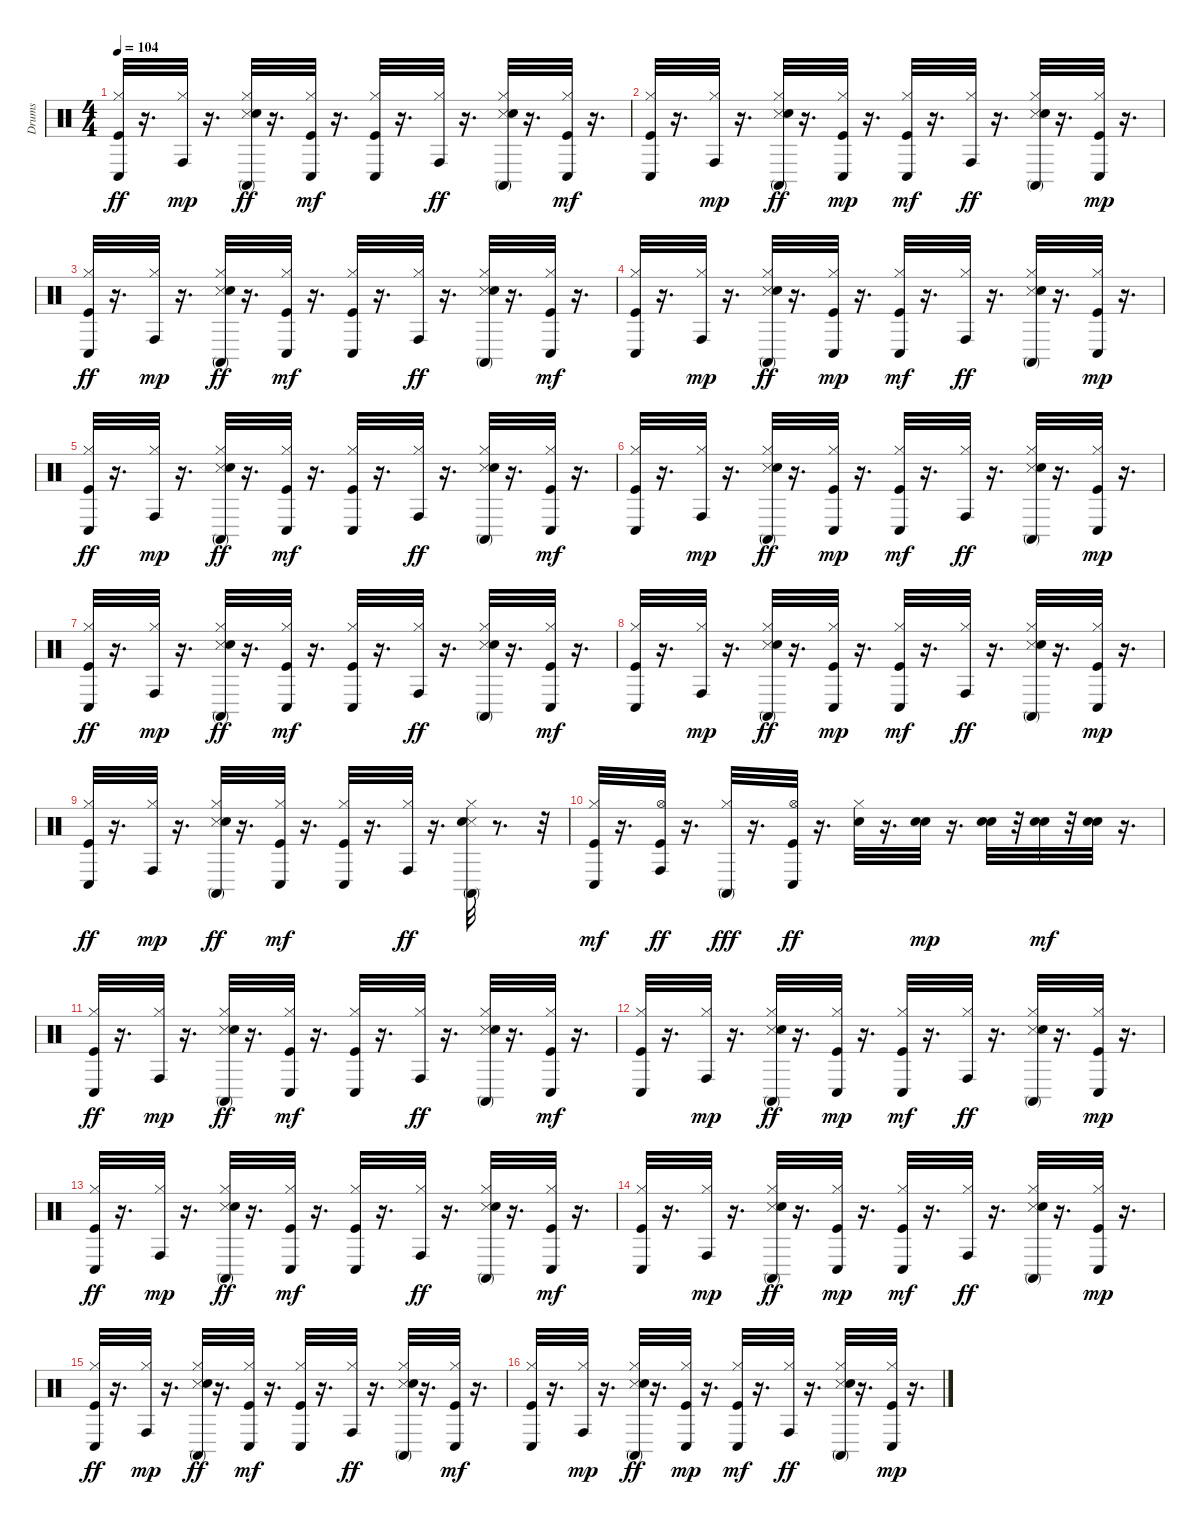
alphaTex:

\track ("Drums" "Drums") {instrument percussion}
\staff {score}
\articulation defaults
\ts (4 4)
\tempo 104
\clef neutral
\ks c
("Kick (hit)" "Hi-Hat (closed)" "Conga low (hit)").32{dy ff} r.16{d} ("Hi-Hat (closed)" "Conga high (hit)").32{dy mp} r.16{d} ("Snare (side stick) 3" "Hi-Hat (closed)" "Conga high (mute)" "Snare (hit) 2").32{dy ff} r.16{d} ("Kick (hit)" "Hi-Hat (closed)" "Conga low (hit)").32{dy mf} r.16{d} ("Kick (hit)" "Hi-Hat (closed)" "Conga low (hit)").32 r.16{d} ("Hi-Hat (closed)" "Conga high (hit)").32{dy ff} r.16{d} ("Snare (side stick) 3" "Hi-Hat (closed)" "Conga high (mute)" "Snare (hit) 2").32 r.16{d} ("Kick (hit)" "Hi-Hat (closed)" "Conga low (hit)").32{dy mf} r.16{d} |
("Kick (hit)" "Hi-Hat (closed)" "Conga low (hit)").32 r.16{d} ("Hi-Hat (closed)" "Conga high (hit)").32{dy mp} r.16{d} ("Snare (side stick) 3" "Hi-Hat (closed)" "Conga high (mute)" "Snare (hit) 2").32{dy ff} r.16{d} ("Kick (hit)" "Hi-Hat (closed)" "Conga low (hit)").32{dy mp} r.16{d} ("Kick (hit)" "Hi-Hat (closed)" "Conga low (hit)").32{dy mf} r.16{d} ("Hi-Hat (closed)" "Conga high (hit)").32{dy ff} r.16{d} ("Snare (side stick) 3" "Hi-Hat (closed)" "Conga high (mute)" "Snare (hit) 2").32 r.16{d} ("Kick (hit)" "Hi-Hat (closed)" "Conga low (hit)").32{dy mp} r.16{d} |
("Kick (hit)" "Hi-Hat (closed)" "Conga low (hit)").32{dy ff} r.16{d} ("Hi-Hat (closed)" "Conga high (hit)").32{dy mp} r.16{d} ("Snare (side stick) 3" "Hi-Hat (closed)" "Conga high (mute)" "Snare (hit) 2").32{dy ff} r.16{d} ("Kick (hit)" "Hi-Hat (closed)" "Conga low (hit)").32{dy mf} r.16{d} ("Kick (hit)" "Hi-Hat (closed)" "Conga low (hit)").32 r.16{d} ("Hi-Hat (closed)" "Conga high (hit)").32{dy ff} r.16{d} ("Snare (side stick) 3" "Hi-Hat (closed)" "Conga high (mute)" "Snare (hit) 2").32 r.16{d} ("Kick (hit)" "Hi-Hat (closed)" "Conga low (hit)").32{dy mf} r.16{d} |
("Kick (hit)" "Hi-Hat (closed)" "Conga low (hit)").32 r.16{d} ("Hi-Hat (closed)" "Conga high (hit)").32{dy mp} r.16{d} ("Snare (side stick) 3" "Hi-Hat (closed)" "Conga high (mute)" "Snare (hit) 2").32{dy ff} r.16{d} ("Kick (hit)" "Hi-Hat (closed)" "Conga low (hit)").32{dy mp} r.16{d} ("Kick (hit)" "Hi-Hat (closed)" "Conga low (hit)").32{dy mf} r.16{d} ("Hi-Hat (closed)" "Conga high (hit)").32{dy ff} r.16{d} ("Snare (side stick) 3" "Hi-Hat (closed)" "Conga high (mute)" "Snare (hit) 2").32 r.16{d} ("Kick (hit)" "Hi-Hat (closed)" "Conga low (hit)").32{dy mp} r.16{d} |
("Kick (hit)" "Hi-Hat (closed)" "Conga low (hit)").32{dy ff} r.16{d} ("Hi-Hat (closed)" "Conga high (hit)").32{dy mp} r.16{d} ("Snare (side stick) 3" "Hi-Hat (closed)" "Conga high (mute)" "Snare (hit) 2").32{dy ff} r.16{d} ("Kick (hit)" "Hi-Hat (closed)" "Conga low (hit)").32{dy mf} r.16{d} ("Kick (hit)" "Hi-Hat (closed)" "Conga low (hit)").32 r.16{d} ("Hi-Hat (closed)" "Conga high (hit)").32{dy ff} r.16{d} ("Snare (side stick) 3" "Hi-Hat (closed)" "Conga high (mute)" "Snare (hit) 2").32 r.16{d} ("Kick (hit)" "Hi-Hat (closed)" "Conga low (hit)").32{dy mf} r.16{d} |
("Kick (hit)" "Hi-Hat (closed)" "Conga low (hit)").32 r.16{d} ("Hi-Hat (closed)" "Conga high (hit)").32{dy mp} r.16{d} ("Snare (side stick) 3" "Hi-Hat (closed)" "Conga high (mute)" "Snare (hit) 2").32{dy ff} r.16{d} ("Kick (hit)" "Hi-Hat (closed)" "Conga low (hit)").32{dy mp} r.16{d} ("Kick (hit)" "Hi-Hat (closed)" "Conga low (hit)").32{dy mf} r.16{d} ("Hi-Hat (closed)" "Conga high (hit)").32{dy ff} r.16{d} ("Snare (side stick) 3" "Hi-Hat (closed)" "Conga high (mute)" "Snare (hit) 2").32 r.16{d} ("Kick (hit)" "Hi-Hat (closed)" "Conga low (hit)").32{dy mp} r.16{d} |
("Kick (hit)" "Hi-Hat (closed)" "Conga low (hit)").32{dy ff} r.16{d} ("Hi-Hat (closed)" "Conga high (hit)").32{dy mp} r.16{d} ("Snare (side stick) 3" "Hi-Hat (closed)" "Conga high (mute)" "Snare (hit) 2").32{dy ff} r.16{d} ("Kick (hit)" "Hi-Hat (closed)" "Conga low (hit)").32{dy mf} r.16{d} ("Kick (hit)" "Hi-Hat (closed)" "Conga low (hit)").32 r.16{d} ("Hi-Hat (closed)" "Conga high (hit)").32{dy ff} r.16{d} ("Snare (side stick) 3" "Hi-Hat (closed)" "Conga high (mute)" "Snare (hit) 2").32 r.16{d} ("Kick (hit)" "Hi-Hat (closed)" "Conga low (hit)").32{dy mf} r.16{d} |
("Kick (hit)" "Hi-Hat (closed)" "Conga low (hit)").32 r.16{d} ("Hi-Hat (closed)" "Conga high (hit)").32{dy mp} r.16{d} ("Snare (side stick) 3" "Hi-Hat (closed)" "Conga high (mute)" "Snare (hit) 2").32{dy ff} r.16{d} ("Kick (hit)" "Hi-Hat (closed)" "Conga low (hit)").32{dy mp} r.16{d} ("Kick (hit)" "Hi-Hat (closed)" "Conga low (hit)").32{dy mf} r.16{d} ("Hi-Hat (closed)" "Conga high (hit)").32{dy ff} r.16{d} ("Snare (side stick) 3" "Hi-Hat (closed)" "Conga high (mute)" "Snare (hit) 2").32 r.16{d} ("Kick (hit)" "Hi-Hat (closed)" "Conga low (hit)").32{dy mp} r.16{d} |
("Kick (hit)" "Hi-Hat (closed)" "Conga low (hit)").32{dy ff} r.16{d} ("Hi-Hat (closed)" "Conga high (hit)").32{dy mp} r.16{d} ("Snare (side stick) 3" "Hi-Hat (closed)" "Conga high (mute)" "Snare (hit) 2").32{dy ff} r.16{d} ("Kick (hit)" "Hi-Hat (closed)" "Conga low (hit)").32{dy mf} r.16{d} ("Kick (hit)" "Hi-Hat (closed)" "Conga low (hit)").32 r.16{d} ("Hi-Hat (closed)" "Conga high (hit)").32{dy ff} r.16{d} ("Snare (side stick) 3" "Hi-Hat (closed)" "Conga high (mute)" "Snare (hit) 2").32 r.8{d} r.32 |
("Kick (hit)" "Hi-Hat (closed)" "Conga low (hit)").32{dy mf} r.16{d} ("Hi-Hat (open)" "Kick (hit)" "Conga high (hit)").32{dy ff} r.16{d} ("Hi-Hat (closed)" "Conga high (mute)").32{dy fff} r.16{d} ("Hi-Hat (open)" "Kick (hit)" "Conga low (hit)").32{dy ff} r.16{d} ("Hi-Hat (closed)" "Hand Clap (hit)").32 r.16{d} ("Snare (hit) 2" "Hand Clap (hit)").32{dy mp} r.16{d} ("Snare (hit) 2" "Hand Clap (hit)").32 r.32 ("Snare (hit) 2" "Hand Clap (hit)").32{dy mf} r.32 ("Snare (hit) 2" "Hand Clap (hit)").32 r.16{d} |
("Kick (hit)" "Hi-Hat (closed)" "Conga low (hit)").32{dy ff} r.16{d} ("Hi-Hat (closed)" "Conga high (hit)").32{dy mp} r.16{d} ("Snare (side stick) 3" "Hi-Hat (closed)" "Conga high (mute)" "Snare (hit) 2").32{dy ff} r.16{d} ("Kick (hit)" "Hi-Hat (closed)" "Conga low (hit)").32{dy mf} r.16{d} ("Kick (hit)" "Hi-Hat (closed)" "Conga low (hit)").32 r.16{d} ("Hi-Hat (closed)" "Conga high (hit)").32{dy ff} r.16{d} ("Snare (side stick) 3" "Hi-Hat (closed)" "Conga high (mute)" "Snare (hit) 2").32 r.16{d} ("Kick (hit)" "Hi-Hat (closed)" "Conga low (hit)").32{dy mf} r.16{d} |
("Kick (hit)" "Hi-Hat (closed)" "Conga low (hit)").32 r.16{d} ("Hi-Hat (closed)" "Conga high (hit)").32{dy mp} r.16{d} ("Snare (side stick) 3" "Hi-Hat (closed)" "Conga high (mute)" "Snare (hit) 2").32{dy ff} r.16{d} ("Kick (hit)" "Hi-Hat (closed)" "Conga low (hit)").32{dy mp} r.16{d} ("Kick (hit)" "Hi-Hat (closed)" "Conga low (hit)").32{dy mf} r.16{d} ("Hi-Hat (closed)" "Conga high (hit)").32{dy ff} r.16{d} ("Snare (side stick) 3" "Hi-Hat (closed)" "Conga high (mute)" "Snare (hit) 2").32 r.16{d} ("Kick (hit)" "Hi-Hat (closed)" "Conga low (hit)").32{dy mp} r.16{d} |
("Kick (hit)" "Hi-Hat (closed)" "Conga low (hit)").32{dy ff} r.16{d} ("Hi-Hat (closed)" "Conga high (hit)").32{dy mp} r.16{d} ("Snare (side stick) 3" "Hi-Hat (closed)" "Conga high (mute)" "Snare (hit) 2").32{dy ff} r.16{d} ("Kick (hit)" "Hi-Hat (closed)" "Conga low (hit)").32{dy mf} r.16{d} ("Kick (hit)" "Hi-Hat (closed)" "Conga low (hit)").32 r.16{d} ("Hi-Hat (closed)" "Conga high (hit)").32{dy ff} r.16{d} ("Snare (side stick) 3" "Hi-Hat (closed)" "Conga high (mute)" "Snare (hit) 2").32 r.16{d} ("Kick (hit)" "Hi-Hat (closed)" "Conga low (hit)").32{dy mf} r.16{d} |
("Kick (hit)" "Hi-Hat (closed)" "Conga low (hit)").32 r.16{d} ("Hi-Hat (closed)" "Conga high (hit)").32{dy mp} r.16{d} ("Snare (side stick) 3" "Hi-Hat (closed)" "Conga high (mute)" "Snare (hit) 2").32{dy ff} r.16{d} ("Kick (hit)" "Hi-Hat (closed)" "Conga low (hit)").32{dy mp} r.16{d} ("Kick (hit)" "Hi-Hat (closed)" "Conga low (hit)").32{dy mf} r.16{d} ("Hi-Hat (closed)" "Conga high (hit)").32{dy ff} r.16{d} ("Snare (side stick) 3" "Hi-Hat (closed)" "Conga high (mute)" "Snare (hit) 2").32 r.16{d} ("Kick (hit)" "Hi-Hat (closed)" "Conga low (hit)").32{dy mp} r.16{d} |
("Kick (hit)" "Hi-Hat (closed)" "Conga low (hit)").32{dy ff} r.16{d} ("Hi-Hat (closed)" "Conga high (hit)").32{dy mp} r.16{d} ("Snare (side stick) 3" "Hi-Hat (closed)" "Conga high (mute)" "Snare (hit) 2").32{dy ff} r.16{d} ("Kick (hit)" "Hi-Hat (closed)" "Conga low (hit)").32{dy mf} r.16{d} ("Kick (hit)" "Hi-Hat (closed)" "Conga low (hit)").32 r.16{d} ("Hi-Hat (closed)" "Conga high (hit)").32{dy ff} r.16{d} ("Snare (side stick) 3" "Hi-Hat (closed)" "Conga high (mute)" "Snare (hit) 2").32 r.16{d} ("Kick (hit)" "Hi-Hat (closed)" "Conga low (hit)").32{dy mf} r.16{d} |
("Kick (hit)" "Hi-Hat (closed)" "Conga low (hit)").32 r.16{d} ("Hi-Hat (closed)" "Conga high (hit)").32{dy mp} r.16{d} ("Snare (side stick) 3" "Hi-Hat (closed)" "Conga high (mute)" "Snare (hit) 2").32{dy ff} r.16{d} ("Kick (hit)" "Hi-Hat (closed)" "Conga low (hit)").32{dy mp} r.16{d} ("Kick (hit)" "Hi-Hat (closed)" "Conga low (hit)").32{dy mf} r.16{d} ("Hi-Hat (closed)" "Conga high (hit)").32{dy ff} r.16{d} ("Snare (side stick) 3" "Hi-Hat (closed)" "Conga high (mute)" "Snare (hit) 2").32 r.16{d} ("Kick (hit)" "Hi-Hat (closed)" "Conga low (hit)").32{dy mp} r.16{d}
